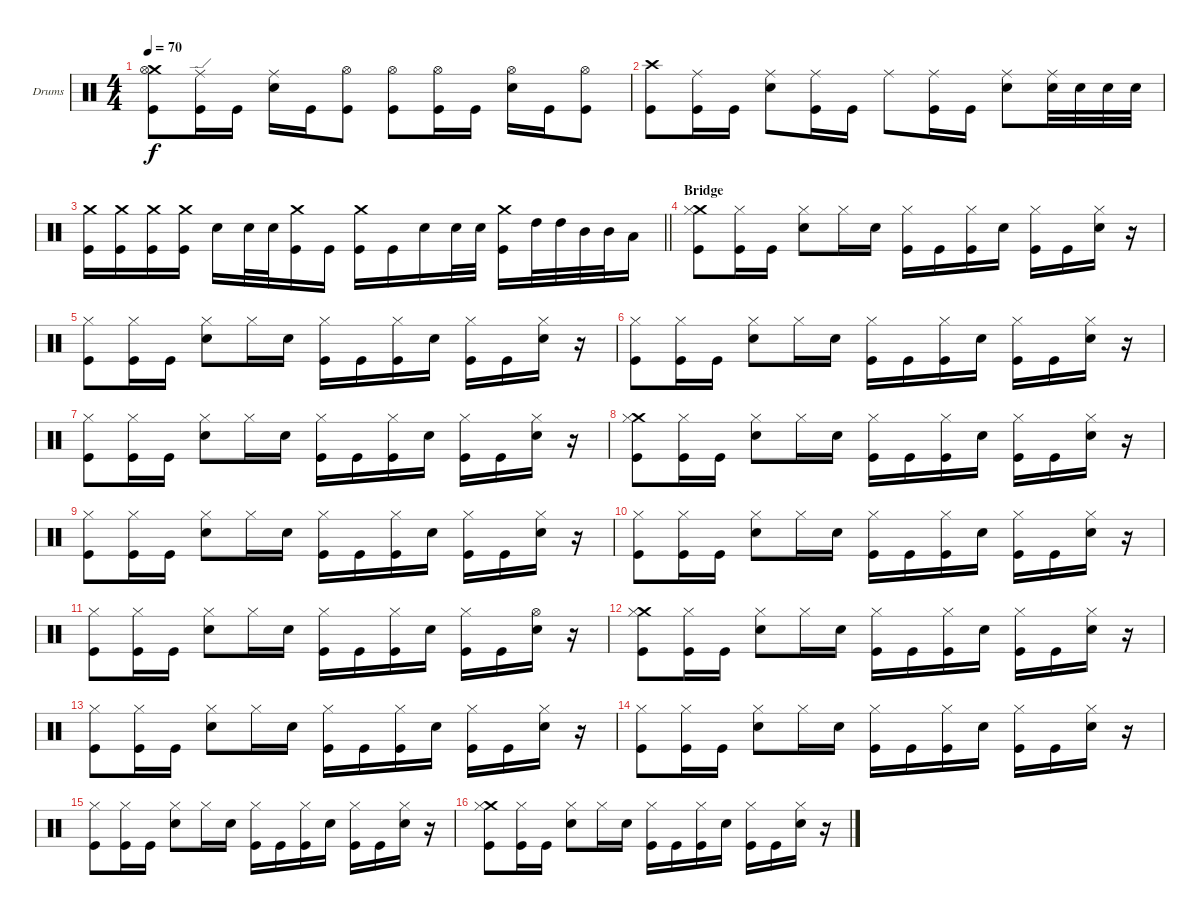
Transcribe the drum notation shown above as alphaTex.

\bracketExtendMode groupsimilarinstruments
\firstSystemTrackNameOrientation horizontal
\otherSystemsTrackNameOrientation horizontal
\track ("Drumkit" "Drums") {instrument percussion}
\staff {score}
\articulation defaults
\ts (4 4)
\tempo 70
\clef neutral
\ks c
("Crash medium (hit)" "Hi-Hat (open)" "Kick (hit)").8{dy f} ("Ride (edge)" "Kick (hit)").16 "Kick (hit)".16 ("Ride (middle)" "Snare (hit) 2").16 "Kick (hit)".16 ("Hi-Hat (open)" "Kick (hit)").8 ("Hi-Hat (open)" "Kick (hit)").8 ("Hi-Hat (open)" "Kick (hit)").16 "Kick (hit)".16 ("Hi-Hat (open)" "Snare (hit) 2").16 "Kick (hit)".16 ("Hi-Hat (open)" "Kick (hit)").8 |
("Crash high (hit)" "Kick (hit)").8 ("Ride (middle)" "Kick (hit)").16 "Kick (hit)".16 ("Ride (middle)" "Snare (hit) 2").8 ("Ride (middle)" "Kick (hit)").16 "Kick (hit)".16 "Ride (middle)".8 ("Ride (middle)" "Kick (hit)").16 "Kick (hit)".16 ("Ride (middle)" "Snare (hit) 2").8 ("Ride (middle)" "Snare (hit) 2").32 "Snare (hit) 2".32 "Snare (hit) 2".32 "Snare (hit) 2".32 |
\barLineRight lightlight
("Crash medium (hit)" "Kick (hit)").16 ("Crash medium (hit)" "Kick (hit)").16 ("Crash medium (hit)" "Kick (hit)").16 ("Crash medium (hit)" "Kick (hit)").16 "Snare (hit) 2".16 "Snare (hit) 2".32 "Snare (hit) 2".32 ("Crash medium (hit)" "Kick (hit)").16 "Kick (hit)".16 ("Crash medium (hit)" "Kick (hit)").16 "Kick (hit)".16 "Snare (hit) 2".16 "Snare (hit) 2".32 "Snare (hit) 2".32 ("Crash medium (hit)" "Kick (hit)").16 "High Tom (hit)".32 "High Tom (hit)".32 "Mid Tom (hit)".32 "Mid Tom (hit)".32 "Low Tom (hit)".16 |
\section ("" "Bridge")
("Crash medium (hit)" "Hi-Hat (closed)" "Kick (hit)").8 ("Hi-Hat (closed)" "Kick (hit)").16 "Kick (hit)".16 ("Hi-Hat (closed)" "Snare (hit) 2").8 "Hi-Hat (closed)".16 "Snare (hit) 2".16 ("Hi-Hat (closed)" "Kick (hit)").16 "Kick (hit)".16 ("Hi-Hat (closed)" "Kick (hit)").16 "Snare (hit) 2".16 ("Hi-Hat (closed)" "Kick (hit)").16 "Kick (hit)".16 ("Hi-Hat (closed)" "Snare (hit) 2").16 r.16 |
("Hi-Hat (closed)" "Kick (hit)").8 ("Hi-Hat (closed)" "Kick (hit)").16 "Kick (hit)".16 ("Hi-Hat (closed)" "Snare (hit) 2").8 "Hi-Hat (closed)".16 "Snare (hit) 2".16 ("Hi-Hat (closed)" "Kick (hit)").16 "Kick (hit)".16 ("Hi-Hat (closed)" "Kick (hit)").16 "Snare (hit) 2".16 ("Hi-Hat (closed)" "Kick (hit)").16 "Kick (hit)".16 ("Hi-Hat (closed)" "Snare (hit) 2").16 r.16 |
("Hi-Hat (closed)" "Kick (hit)").8 ("Hi-Hat (closed)" "Kick (hit)").16 "Kick (hit)".16 ("Hi-Hat (closed)" "Snare (hit) 2").8 "Hi-Hat (closed)".16 "Snare (hit) 2".16 ("Hi-Hat (closed)" "Kick (hit)").16 "Kick (hit)".16 ("Hi-Hat (closed)" "Kick (hit)").16 "Snare (hit) 2".16 ("Hi-Hat (closed)" "Kick (hit)").16 "Kick (hit)".16 ("Hi-Hat (closed)" "Snare (hit) 2").16 r.16 |
("Hi-Hat (closed)" "Kick (hit)").8 ("Hi-Hat (closed)" "Kick (hit)").16 "Kick (hit)".16 ("Hi-Hat (closed)" "Snare (hit) 2").8 "Hi-Hat (closed)".16 "Snare (hit) 2".16 ("Hi-Hat (closed)" "Kick (hit)").16 "Kick (hit)".16 ("Hi-Hat (closed)" "Kick (hit)").16 "Snare (hit) 2".16 ("Hi-Hat (closed)" "Kick (hit)").16 "Kick (hit)".16 ("Hi-Hat (closed)" "Snare (hit) 2").16 r.16 |
("Crash medium (hit)" "Hi-Hat (closed)" "Kick (hit)").8 ("Hi-Hat (closed)" "Kick (hit)").16 "Kick (hit)".16 ("Hi-Hat (closed)" "Snare (hit) 2").8 "Hi-Hat (closed)".16 "Snare (hit) 2".16 ("Hi-Hat (closed)" "Kick (hit)").16 "Kick (hit)".16 ("Hi-Hat (closed)" "Kick (hit)").16 "Snare (hit) 2".16 ("Hi-Hat (closed)" "Kick (hit)").16 "Kick (hit)".16 ("Hi-Hat (closed)" "Snare (hit) 2").16 r.16 |
("Hi-Hat (closed)" "Kick (hit)").8 ("Hi-Hat (closed)" "Kick (hit)").16 "Kick (hit)".16 ("Hi-Hat (closed)" "Snare (hit) 2").8 "Hi-Hat (closed)".16 "Snare (hit) 2".16 ("Hi-Hat (closed)" "Kick (hit)").16 "Kick (hit)".16 ("Hi-Hat (closed)" "Kick (hit)").16 "Snare (hit) 2".16 ("Hi-Hat (closed)" "Kick (hit)").16 "Kick (hit)".16 ("Hi-Hat (closed)" "Snare (hit) 2").16 r.16 |
("Hi-Hat (closed)" "Kick (hit)").8 ("Hi-Hat (closed)" "Kick (hit)").16 "Kick (hit)".16 ("Hi-Hat (closed)" "Snare (hit) 2").8 "Hi-Hat (closed)".16 "Snare (hit) 2".16 ("Hi-Hat (closed)" "Kick (hit)").16 "Kick (hit)".16 ("Hi-Hat (closed)" "Kick (hit)").16 "Snare (hit) 2".16 ("Hi-Hat (closed)" "Kick (hit)").16 "Kick (hit)".16 ("Hi-Hat (closed)" "Snare (hit) 2").16 r.16 |
("Hi-Hat (closed)" "Kick (hit)").8 ("Hi-Hat (closed)" "Kick (hit)").16 "Kick (hit)".16 ("Hi-Hat (closed)" "Snare (hit) 2").8 "Hi-Hat (closed)".16 "Snare (hit) 2".16 ("Hi-Hat (closed)" "Kick (hit)").16 "Kick (hit)".16 ("Hi-Hat (closed)" "Kick (hit)").16 "Snare (hit) 2".16 ("Hi-Hat (closed)" "Kick (hit)").16 "Kick (hit)".16 ("Hi-Hat (open)" "Snare (hit) 2").16 r.16 |
("Crash medium (hit)" "Hi-Hat (closed)" "Kick (hit)").8 ("Hi-Hat (closed)" "Kick (hit)").16 "Kick (hit)".16 ("Hi-Hat (closed)" "Snare (hit) 2").8 "Hi-Hat (closed)".16 "Snare (hit) 2".16 ("Hi-Hat (closed)" "Kick (hit)").16 "Kick (hit)".16 ("Hi-Hat (closed)" "Kick (hit)").16 "Snare (hit) 2".16 ("Hi-Hat (closed)" "Kick (hit)").16 "Kick (hit)".16 ("Hi-Hat (closed)" "Snare (hit) 2").16 r.16 |
("Hi-Hat (closed)" "Kick (hit)").8 ("Hi-Hat (closed)" "Kick (hit)").16 "Kick (hit)".16 ("Hi-Hat (closed)" "Snare (hit) 2").8 "Hi-Hat (closed)".16 "Snare (hit) 2".16 ("Hi-Hat (closed)" "Kick (hit)").16 "Kick (hit)".16 ("Hi-Hat (closed)" "Kick (hit)").16 "Snare (hit) 2".16 ("Hi-Hat (closed)" "Kick (hit)").16 "Kick (hit)".16 ("Hi-Hat (closed)" "Snare (hit) 2").16 r.16 |
("Hi-Hat (closed)" "Kick (hit)").8 ("Hi-Hat (closed)" "Kick (hit)").16 "Kick (hit)".16 ("Hi-Hat (closed)" "Snare (hit) 2").8 "Hi-Hat (closed)".16 "Snare (hit) 2".16 ("Hi-Hat (closed)" "Kick (hit)").16 "Kick (hit)".16 ("Hi-Hat (closed)" "Kick (hit)").16 "Snare (hit) 2".16 ("Hi-Hat (closed)" "Kick (hit)").16 "Kick (hit)".16 ("Hi-Hat (closed)" "Snare (hit) 2").16 r.16 |
("Hi-Hat (closed)" "Kick (hit)").8 ("Hi-Hat (closed)" "Kick (hit)").16 "Kick (hit)".16 ("Hi-Hat (closed)" "Snare (hit) 2").8 "Hi-Hat (closed)".16 "Snare (hit) 2".16 ("Hi-Hat (closed)" "Kick (hit)").16 "Kick (hit)".16 ("Hi-Hat (closed)" "Kick (hit)").16 "Snare (hit) 2".16 ("Hi-Hat (closed)" "Kick (hit)").16 "Kick (hit)".16 ("Hi-Hat (closed)" "Snare (hit) 2").16 r.16 |
("Crash medium (hit)" "Hi-Hat (closed)" "Kick (hit)").8 ("Hi-Hat (closed)" "Kick (hit)").16 "Kick (hit)".16 ("Hi-Hat (closed)" "Snare (hit) 2").8 "Hi-Hat (closed)".16 "Snare (hit) 2".16 ("Hi-Hat (closed)" "Kick (hit)").16 "Kick (hit)".16 ("Hi-Hat (closed)" "Kick (hit)").16 "Snare (hit) 2".16 ("Hi-Hat (closed)" "Kick (hit)").16 "Kick (hit)".16 ("Hi-Hat (closed)" "Snare (hit) 2").16 r.16
